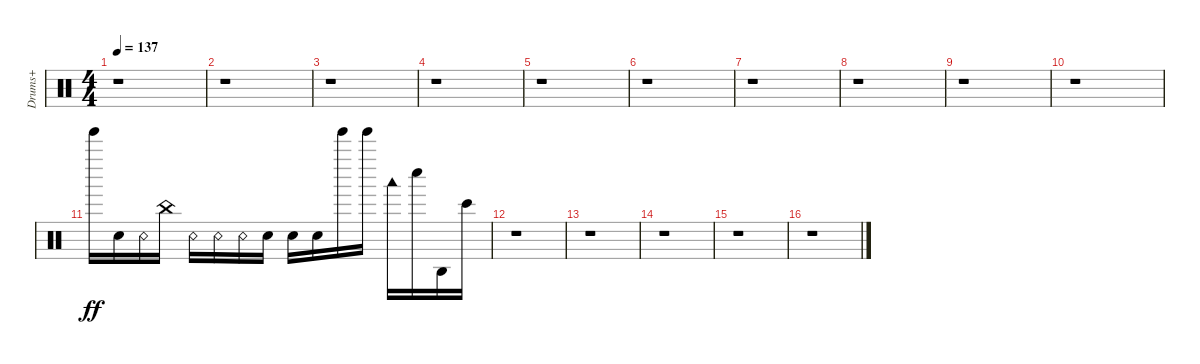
\track ("Drums+" "Drums+") {instrument percussion}
\staff {score}
\articulation defaults
\ts (4 4)
\tempo 137
\clef neutral
\ks c
r.1{dy f} |
r.1 |
r.1 |
r.1 |
r.1 |
r.1 |
r.1 |
r.1 |
r.1 |
r.1 |
"Tinkle Bell (hit)".16{dy ff} "Snare (hit)".16 "Snare (rim shot)".16 "China (choke)".16 "Snare (rim shot)".16 "Snare (rim shot)".16 "Snare (rim shot)".16 "Snare (hit)".16 "Snare (hit)".16 "Snare (hit)".16 "Tinkle Bell (hit)".16 "Tinkle Bell (hit)".16 "Woodblock low (hit)".16 "Whistle low (hit)".16 "Agogo high (hit)".16 "Bongo High (hit)".16 |
r.1 |
r.1 |
r.1 |
r.1 |
r.1
